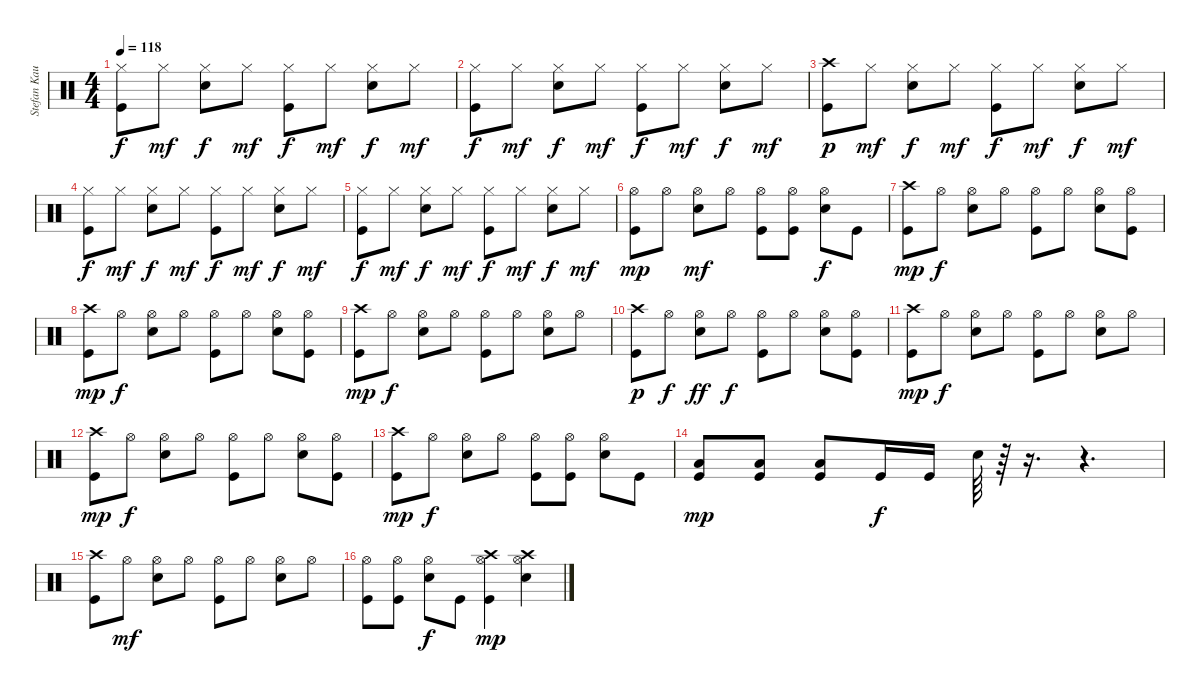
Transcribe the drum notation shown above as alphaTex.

\track ("Stefan Kaufmann" "Stefan Kau") {instrument percussion}
\staff {score}
\articulation defaults
\ts (4 4)
\tempo 118
\clef neutral
\ks c
("Hi-Hat (closed)" "Kick (hit)").8{dy f} "Hi-Hat (closed)".8{dy mf} ("Hi-Hat (closed)" "Snare (hit) 2").8{dy f} "Hi-Hat (closed)".8{dy mf} ("Hi-Hat (closed)" "Kick (hit)").8{dy f} "Hi-Hat (closed)".8{dy mf} ("Hi-Hat (closed)" "Snare (hit) 2").8{dy f} "Hi-Hat (closed)".8{dy mf} |
("Hi-Hat (closed)" "Kick (hit)").8{dy f} "Hi-Hat (closed)".8{dy mf} ("Hi-Hat (closed)" "Snare (hit) 2").8{dy f} "Hi-Hat (closed)".8{dy mf} ("Hi-Hat (closed)" "Kick (hit)").8{dy f} "Hi-Hat (closed)".8{dy mf} ("Hi-Hat (closed)" "Snare (hit) 2").8{dy f} "Hi-Hat (closed)".8{dy mf} |
("Crash high (hit)" "Kick (hit)").8{dy p} "Hi-Hat (closed)".8{dy mf} ("Hi-Hat (closed)" "Snare (hit) 2").8{dy f} "Hi-Hat (closed)".8{dy mf} ("Hi-Hat (closed)" "Kick (hit)").8{dy f} "Hi-Hat (closed)".8{dy mf} ("Hi-Hat (closed)" "Snare (hit) 2").8{dy f} "Hi-Hat (closed)".8{dy mf} |
("Hi-Hat (closed)" "Kick (hit)").8{dy f} "Hi-Hat (closed)".8{dy mf} ("Hi-Hat (closed)" "Snare (hit) 2").8{dy f} "Hi-Hat (closed)".8{dy mf} ("Hi-Hat (closed)" "Kick (hit)").8{dy f} "Hi-Hat (closed)".8{dy mf} ("Hi-Hat (closed)" "Snare (hit) 2").8{dy f} "Hi-Hat (closed)".8{dy mf} |
("Hi-Hat (closed)" "Kick (hit)").8{dy f} "Hi-Hat (closed)".8{dy mf} ("Hi-Hat (closed)" "Snare (hit) 2").8{dy f} "Hi-Hat (closed)".8{dy mf} ("Hi-Hat (closed)" "Kick (hit)").8{dy f} "Hi-Hat (closed)".8{dy mf} ("Hi-Hat (closed)" "Snare (hit) 2").8{dy f} "Hi-Hat (closed)".8{dy mf} |
("Hi-Hat (open)" "Kick (hit)").8{dy mp} "Hi-Hat (open)".8 ("Hi-Hat (open)" "Snare (hit) 2").8{dy mf} "Hi-Hat (open)".8 ("Hi-Hat (open)" "Kick (hit)").8 ("Hi-Hat (open)" "Kick (hit)").8 ("Hi-Hat (open)" "Snare (hit) 2").8{dy f} "Kick (hit)".8 |
("Crash high (hit)" "Kick (hit)").8{dy mp} "Hi-Hat (open)".8{dy f} ("Hi-Hat (open)" "Snare (hit) 2").8 "Hi-Hat (open)".8 ("Hi-Hat (open)" "Kick (hit)").8 "Hi-Hat (open)".8 ("Hi-Hat (open)" "Snare (hit) 2").8 ("Hi-Hat (open)" "Kick (hit)").8 |
("Crash high (hit)" "Kick (hit)").8{dy mp} "Hi-Hat (open)".8{dy f} ("Hi-Hat (open)" "Snare (hit) 2").8 "Hi-Hat (open)".8 ("Hi-Hat (open)" "Kick (hit)").8 "Hi-Hat (open)".8 ("Hi-Hat (open)" "Snare (hit) 2").8 ("Hi-Hat (open)" "Kick (hit)").8 |
("Crash high (hit)" "Kick (hit)").8{dy mp} "Hi-Hat (open)".8{dy f} ("Hi-Hat (open)" "Snare (hit) 2").8 "Hi-Hat (open)".8 ("Hi-Hat (open)" "Kick (hit)").8 "Hi-Hat (open)".8 ("Hi-Hat (open)" "Snare (hit) 2").8 "Hi-Hat (open)".8 |
("Crash high (hit)" "Kick (hit)").8{dy p} "Hi-Hat (open)".8{dy f} ("Hi-Hat (open)" "Snare (hit) 2").8{dy ff} "Hi-Hat (open)".8{dy f} ("Hi-Hat (open)" "Kick (hit)").8 "Hi-Hat (open)".8 ("Hi-Hat (open)" "Snare (hit) 2").8 ("Hi-Hat (open)" "Kick (hit)").8 |
("Crash high (hit)" "Kick (hit)").8{dy mp} "Hi-Hat (open)".8{dy f} ("Hi-Hat (open)" "Snare (hit) 2").8 "Hi-Hat (open)".8 ("Hi-Hat (open)" "Kick (hit)").8 "Hi-Hat (open)".8 ("Hi-Hat (open)" "Snare (hit) 2").8 "Hi-Hat (open)".8 |
("Crash high (hit)" "Kick (hit)").8{dy mp} "Hi-Hat (open)".8{dy f} ("Hi-Hat (open)" "Snare (hit) 2").8 "Hi-Hat (open)".8 ("Hi-Hat (open)" "Kick (hit)").8 "Hi-Hat (open)".8 ("Hi-Hat (open)" "Snare (hit) 2").8 ("Hi-Hat (open)" "Kick (hit)").8 |
("Crash high (hit)" "Kick (hit)").8{dy mp} "Hi-Hat (open)".8{dy f} ("Hi-Hat (open)" "Snare (hit) 2").8 "Hi-Hat (open)".8 ("Hi-Hat (open)" "Kick (hit)").8 ("Hi-Hat (open)" "Kick (hit)").8 ("Hi-Hat (open)" "Snare (hit) 2").8 "Kick (hit)".8 |
("Kick (hit)" "Low Floor Tom (hit)").8{dy mp} ("Kick (hit)" "Low Floor Tom (hit)").8 ("Kick (hit)" "Low Floor Tom (hit)").8 "Kick (hit)".16{dy f} "Kick (hit)".16 "Snare (hit) 2".64 r.64 r.16{d} r.4{d} |
("Crash high (hit)" "Kick (hit)").8 "Hi-Hat (open)".8{dy mf} ("Hi-Hat (open)" "Snare (hit) 2").8 "Hi-Hat (open)".8 ("Hi-Hat (open)" "Kick (hit)").8 "Hi-Hat (open)".8 ("Hi-Hat (open)" "Snare (hit) 2").8 "Hi-Hat (open)".8 |
("Hi-Hat (open)" "Kick (hit)").8 ("Hi-Hat (open)" "Kick (hit)").8 ("Hi-Hat (open)" "Snare (hit) 2").8{dy f} "Kick (hit)".8 ("Hi-Hat (open)" "Kick (hit)" "Crash high (hit)").4{dy mp} ("Hi-Hat (open)" "Snare (hit) 2" "Crash high (hit)").4
